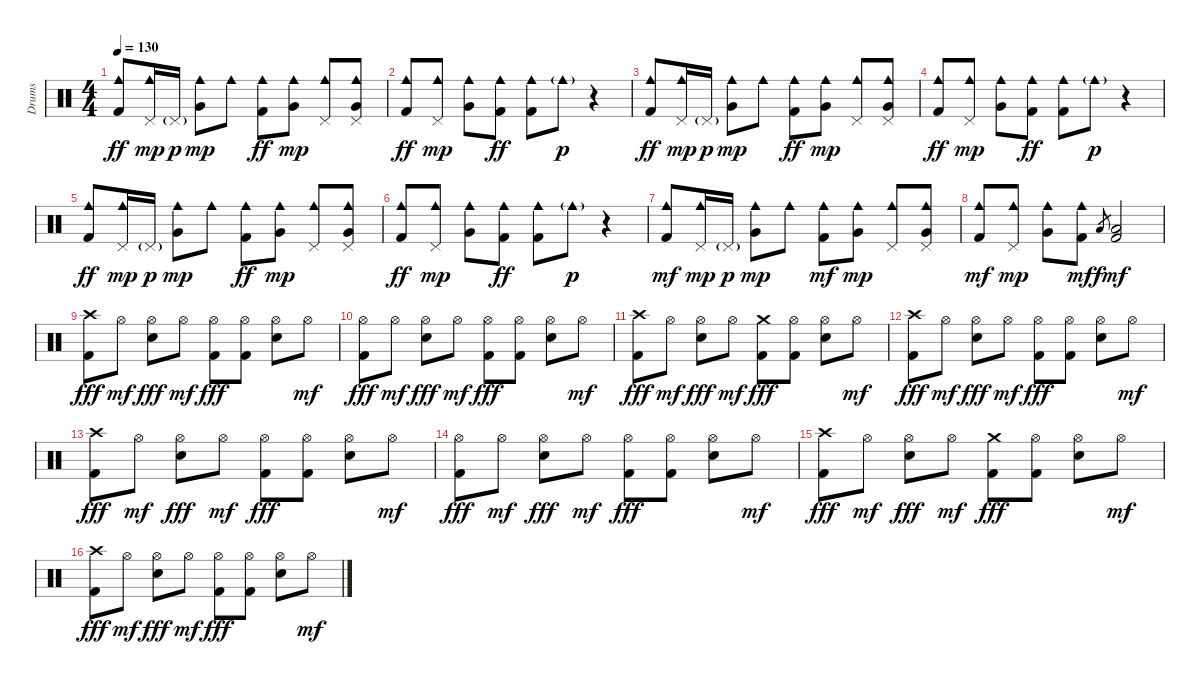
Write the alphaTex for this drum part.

\track ("Drums" "Drums") {instrument percussion}
\staff {score}
\articulation defaults
\ts (4 4)
\tempo 130
\clef neutral
\ks c
("Cowbell medium (hit)" "Kick (hit) 2").8{dy ff} ("Cowbell medium (hit)" "Pedal Hi-Hat (hit)").16{dy mp} "Pedal Hi-Hat (hit)"{g}.16{dy p} ("Cowbell medium (hit)" "Very Low Tom (hit)").8{dy mp} "Cowbell medium (hit)".8 ("Cowbell medium (hit)" "Kick (hit) 2").8{dy ff} ("Cowbell medium (hit)" "Very Low Tom (hit)").8{dy mp} ("Cowbell medium (hit)" "Pedal Hi-Hat (hit)").8 ("Cowbell medium (hit)" "Pedal Hi-Hat (hit)" "Very Low Tom (hit)").8 |
("Cowbell medium (hit)" "Kick (hit) 2").8{dy ff} ("Cowbell medium (hit)" "Pedal Hi-Hat (hit)").8{dy mp} ("Cowbell medium (hit)" "Very Low Tom (hit)").8 ("Cowbell medium (hit)" "Kick (hit) 2").8{dy ff} ("Cowbell medium (hit)" "Kick (hit) 2").8 "Cowbell medium (hit)"{g}.8{dy p} r.4 |
("Cowbell medium (hit)" "Kick (hit) 2").8{dy ff} ("Cowbell medium (hit)" "Pedal Hi-Hat (hit)").16{dy mp} "Pedal Hi-Hat (hit)"{g}.16{dy p} ("Cowbell medium (hit)" "Very Low Tom (hit)").8{dy mp} "Cowbell medium (hit)".8 ("Cowbell medium (hit)" "Kick (hit) 2").8{dy ff} ("Cowbell medium (hit)" "Very Low Tom (hit)").8{dy mp} ("Cowbell medium (hit)" "Pedal Hi-Hat (hit)").8 ("Cowbell medium (hit)" "Pedal Hi-Hat (hit)" "Very Low Tom (hit)").8 |
("Cowbell medium (hit)" "Kick (hit) 2").8{dy ff} ("Cowbell medium (hit)" "Pedal Hi-Hat (hit)").8{dy mp} ("Cowbell medium (hit)" "Very Low Tom (hit)").8 ("Cowbell medium (hit)" "Kick (hit) 2").8{dy ff} ("Cowbell medium (hit)" "Kick (hit) 2").8 "Cowbell medium (hit)"{g}.8{dy p} r.4 |
("Cowbell medium (hit)" "Kick (hit) 2").8{dy ff} ("Cowbell medium (hit)" "Pedal Hi-Hat (hit)").16{dy mp} "Pedal Hi-Hat (hit)"{g}.16{dy p} ("Cowbell medium (hit)" "Very Low Tom (hit)").8{dy mp} "Cowbell medium (hit)".8 ("Cowbell medium (hit)" "Kick (hit) 2").8{dy ff} ("Cowbell medium (hit)" "Very Low Tom (hit)").8{dy mp} ("Cowbell medium (hit)" "Pedal Hi-Hat (hit)").8 ("Cowbell medium (hit)" "Pedal Hi-Hat (hit)" "Very Low Tom (hit)").8 |
("Cowbell medium (hit)" "Kick (hit) 2").8{dy ff} ("Cowbell medium (hit)" "Pedal Hi-Hat (hit)").8{dy mp} ("Cowbell medium (hit)" "Very Low Tom (hit)").8 ("Cowbell medium (hit)" "Kick (hit) 2").8{dy ff} ("Cowbell medium (hit)" "Kick (hit) 2").8 "Cowbell medium (hit)"{g}.8{dy p} r.4 |
("Cowbell medium (hit)" "Kick (hit) 2").8{dy mf} ("Cowbell medium (hit)" "Pedal Hi-Hat (hit)").16{dy mp} "Pedal Hi-Hat (hit)"{g}.16{dy p} ("Cowbell medium (hit)" "Very Low Tom (hit)").8{dy mp} "Cowbell medium (hit)".8 ("Cowbell medium (hit)" "Kick (hit) 2").8{dy mf} ("Cowbell medium (hit)" "Very Low Tom (hit)").8{dy mp} ("Cowbell medium (hit)" "Pedal Hi-Hat (hit)").8 ("Cowbell medium (hit)" "Pedal Hi-Hat (hit)" "Very Low Tom (hit)").8 |
("Cowbell medium (hit)" "Kick (hit) 2").8{dy mf} ("Cowbell medium (hit)" "Pedal Hi-Hat (hit)").8{dy mp} ("Cowbell medium (hit)" "Very Low Tom (hit)").8 ("Cowbell medium (hit)" "Kick (hit) 2").8{dy mf} "Low Tom (hit)".8{gr dy f} ("Low Tom (hit)" "Kick (hit) 2").2{dy mf} |
("Crash high (hit)" "Kick (hit) 2").8{dy fff} "Hi-Hat (open)".8{dy mf} ("Hi-Hat (open)" "Snare (hit) 2").8{dy fff} "Hi-Hat (open)".8{dy mf} ("Hi-Hat (open)" "Kick (hit) 2").8{dy fff} ("Hi-Hat (open)" "Kick (hit) 2").8 ("Hi-Hat (open)" "Snare (hit) 2").8 "Hi-Hat (open)".8{dy mf} |
("Hi-Hat (open)" "Kick (hit) 2").8{dy fff} "Hi-Hat (open)".8{dy mf} ("Hi-Hat (open)" "Snare (hit) 2").8{dy fff} "Hi-Hat (open)".8{dy mf} ("Hi-Hat (open)" "Kick (hit) 2").8{dy fff} ("Hi-Hat (open)" "Kick (hit) 2").8 ("Hi-Hat (open)" "Snare (hit) 2").8 "Hi-Hat (open)".8{dy mf} |
("Crash high (hit)" "Kick (hit) 2").8{dy fff} "Hi-Hat (open)".8{dy mf} ("Hi-Hat (open)" "Snare (hit) 2").8{dy fff} "Hi-Hat (open)".8{dy mf} ("Crash medium (hit)" "Kick (hit) 2").8{dy fff} ("Hi-Hat (open)" "Kick (hit) 2").8 ("Hi-Hat (open)" "Snare (hit) 2").8 "Hi-Hat (open)".8{dy mf} |
("Crash high (hit)" "Kick (hit) 2").8{dy fff} "Hi-Hat (open)".8{dy mf} ("Hi-Hat (open)" "Snare (hit) 2").8{dy fff} "Hi-Hat (open)".8{dy mf} ("Hi-Hat (open)" "Kick (hit) 2").8{dy fff} ("Hi-Hat (open)" "Kick (hit) 2").8 ("Hi-Hat (open)" "Snare (hit) 2").8 "Hi-Hat (open)".8{dy mf} |
("Crash high (hit)" "Kick (hit) 2").8{dy fff} "Hi-Hat (open)".8{dy mf} ("Hi-Hat (open)" "Snare (hit) 2").8{dy fff} "Hi-Hat (open)".8{dy mf} ("Hi-Hat (open)" "Kick (hit) 2").8{dy fff} ("Hi-Hat (open)" "Kick (hit) 2").8 ("Hi-Hat (open)" "Snare (hit) 2").8 "Hi-Hat (open)".8{dy mf} |
("Hi-Hat (open)" "Kick (hit) 2").8{dy fff} "Hi-Hat (open)".8{dy mf} ("Hi-Hat (open)" "Snare (hit) 2").8{dy fff} "Hi-Hat (open)".8{dy mf} ("Hi-Hat (open)" "Kick (hit) 2").8{dy fff} ("Hi-Hat (open)" "Kick (hit) 2").8 ("Hi-Hat (open)" "Snare (hit) 2").8 "Hi-Hat (open)".8{dy mf} |
("Crash high (hit)" "Kick (hit) 2").8{dy fff} "Hi-Hat (open)".8{dy mf} ("Hi-Hat (open)" "Snare (hit) 2").8{dy fff} "Hi-Hat (open)".8{dy mf} ("Crash medium (hit)" "Kick (hit) 2").8{dy fff} ("Hi-Hat (open)" "Kick (hit) 2").8 ("Hi-Hat (open)" "Snare (hit) 2").8 "Hi-Hat (open)".8{dy mf} |
("Crash high (hit)" "Kick (hit) 2").8{dy fff} "Hi-Hat (open)".8{dy mf} ("Hi-Hat (open)" "Snare (hit) 2").8{dy fff} "Hi-Hat (open)".8{dy mf} ("Hi-Hat (open)" "Kick (hit) 2").8{dy fff} ("Hi-Hat (open)" "Kick (hit) 2").8 ("Hi-Hat (open)" "Snare (hit) 2").8 "Hi-Hat (open)".8{dy mf}
